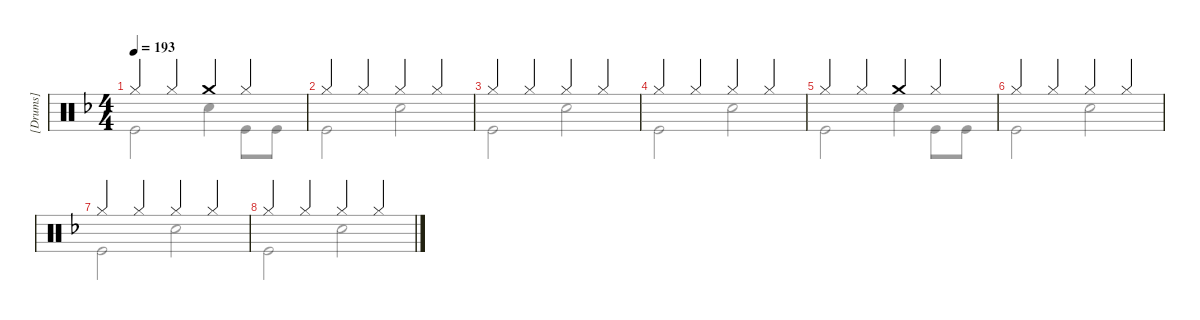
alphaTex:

\hideDynamics
\bracketExtendMode groupsimilarinstruments
\firstSystemTrackNameMode fullname
\otherSystemsTrackNameMode fullname
\otherSystemsTrackNameOrientation horizontal
\track ("[Drums]" "Drums") {instrument percussion}
\staff {score}
\articulation defaults
\voice
\ts (4 4)
\tempo 193
\clef neutral
\ks f "Hi-Hat (closed)".4{dy ff} "Hi-Hat (closed)".4 "Crash medium (hit)".4 "Hi-Hat (closed)".4
|
"Hi-Hat (closed)".4 "Hi-Hat (closed)".4 "Hi-Hat (closed)".4 "Hi-Hat (closed)".4 |
"Hi-Hat (closed)".4 "Hi-Hat (closed)".4 "Hi-Hat (closed)".4 "Hi-Hat (closed)".4 |
"Hi-Hat (closed)".4 "Hi-Hat (closed)".4 "Hi-Hat (closed)".4 "Hi-Hat (closed)".4 |
"Hi-Hat (closed)".4 "Hi-Hat (closed)".4 "Crash medium (hit)".4 "Hi-Hat (closed)".4 |
"Hi-Hat (closed)".4 "Hi-Hat (closed)".4 "Hi-Hat (closed)".4 "Hi-Hat (closed)".4 |
"Hi-Hat (closed)".4 "Hi-Hat (closed)".4 "Hi-Hat (closed)".4 "Hi-Hat (closed)".4 |
"Hi-Hat (closed)".4 "Hi-Hat (closed)".4 "Hi-Hat (closed)".4 "Hi-Hat (closed)".4
\voice
\clef neutral
\ottava regular
\simile none
\ks f "Kick (hit)".2{dy f} "Snare (hit) 2".4 "Kick (hit)".8 "Kick (hit)".8
|
"Kick (hit)".2 "Snare (hit) 2".2 |
"Kick (hit)".2 "Snare (hit) 2".2 |
"Kick (hit)".2 "Snare (hit) 2".2 |
"Kick (hit)".2 "Snare (hit) 2".4 "Kick (hit)".8 "Kick (hit)".8 |
"Kick (hit)".2 "Snare (hit) 2".2 |
"Kick (hit)".2 "Snare (hit) 2".2 |
"Kick (hit)".2 "Snare (hit) 2".2
